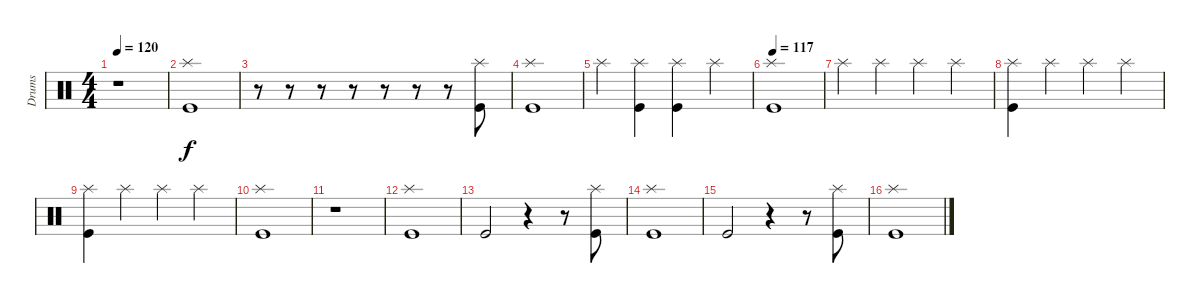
\track ("Drums" "Drums") {instrument percussion}
\staff
\articulation defaults
\ts (4 4)
\tempo 120
\clef neutral
\ks c
r.1{dy f} |
("Splash (hit)" "Kick (hit)").1 |
r.8 r.8 r.8 r.8 r.8 r.8 r.8 ("Splash (hit)" "Kick (hit)").8 |
("Splash (hit)" "Kick (hit)").1 |
"Splash (hit)".4 ("Splash (hit)" "Kick (hit)").4 ("Splash (hit)" "Kick (hit)").4 "Splash (hit)".4 |
\tempo 117
("Splash (hit)" "Kick (hit)").1 |
"Splash (hit)".4 "Splash (hit)".4 "Splash (hit)".4 "Splash (hit)".4 |
("Splash (hit)" "Kick (hit)").4 "Splash (hit)".4 "Splash (hit)".4 "Splash (hit)".4 |
("Splash (hit)" "Kick (hit)").4 "Splash (hit)".4 "Splash (hit)".4 "Splash (hit)".4 |
("Splash (hit)" "Kick (hit)").1 |
r.1 |
("Splash (hit)" "Kick (hit)").1 |
"Kick (hit)".2 r.4 r.8 ("Splash (hit)" "Kick (hit)").8 |
("Splash (hit)" "Kick (hit)").1 |
"Kick (hit)".2 r.4 r.8 ("Splash (hit)" "Kick (hit)").8 |
("Splash (hit)" "Kick (hit)").1
